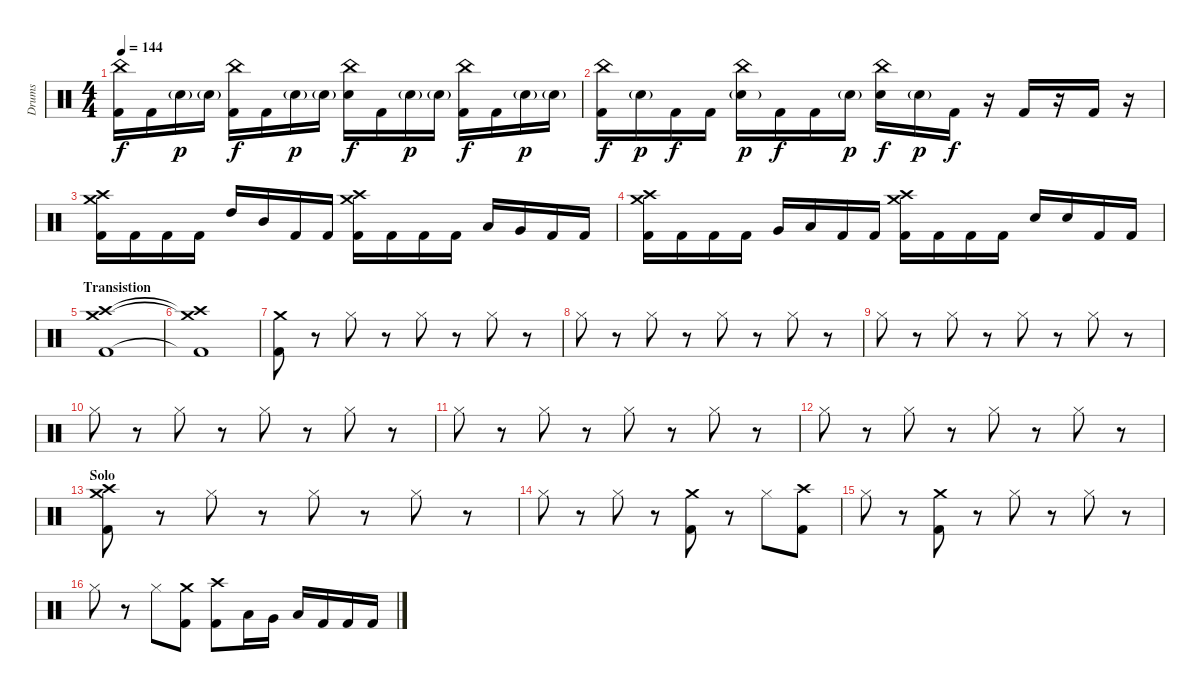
\track ("Drums" "Drums") {instrument percussion}
\staff {score}
\articulation defaults
\ts (4 4)
\tempo 144
\clef neutral
\ks c
("China (hit)" "Kick (hit) 2").16{dy f} "Kick (hit) 2".16 "Snare (hit) 2"{g}.16{dy p} "Snare (hit) 2"{g}.16 ("China (hit)" "Kick (hit) 2").16{dy f} "Kick (hit) 2".16 "Snare (hit) 2"{g}.16{dy p} "Snare (hit) 2"{g}.16 ("China (hit)" "Electric Snare (hit)").16{dy f} "Kick (hit) 2".16 "Snare (hit) 2"{g}.16{dy p} "Snare (hit) 2"{g}.16 ("China (hit)" "Kick (hit) 2").16{dy f} "Kick (hit) 2".16 "Snare (hit) 2"{g}.16{dy p} "Snare (hit) 2"{g}.16 |
("China (hit)" "Kick (hit) 2").16{dy f} "Snare (hit) 2"{g}.16{dy p} "Kick (hit) 2".16{dy f} "Kick (hit) 2".16 ("China (hit)" "Snare (hit) 2"{g}).16{dy p} "Kick (hit) 2".16{dy f} "Kick (hit) 2".16 "Snare (hit) 2"{g}.16{dy p} ("China (hit)" "Electric Snare (hit)").16{dy f} "Snare (hit) 2"{g}.16{dy p} "Kick (hit) 2".16{dy f} r.16 "Kick (hit) 2".16 r.16 "Kick (hit) 2".16 r.16 |
("Crash medium (hit)" "Crash high (hit)" "Kick (hit) 2").16 "Kick (hit) 2".16 "Kick (hit) 2".16 "Kick (hit) 2".16 "High Tom (hit)".16 "Mid Tom (hit)".16 "Kick (hit) 2".16 "Kick (hit) 2".16 ("Crash medium (hit)" "Crash high (hit)" "Kick (hit) 2").16 "Kick (hit) 2".16 "Kick (hit) 2".16 "Kick (hit) 2".16 "Low Tom (hit)".16 "Very Low Tom (hit)".16 "Kick (hit) 2".16 "Kick (hit) 2".16 |
("Crash medium (hit)" "Crash high (hit)" "Kick (hit) 2").16 "Kick (hit) 2".16 "Kick (hit) 2".16 "Kick (hit) 2".16 "Very Low Tom (hit)".16 "Low Floor Tom (hit)".16 "Kick (hit) 2".16 "Kick (hit) 2".16 ("Crash medium (hit)" "Crash high (hit)" "Kick (hit) 2").16 "Kick (hit) 2".16 "Kick (hit) 2".16 "Kick (hit) 2".16 "Electric Snare (hit)".16 "Electric Snare (hit)".16 "Kick (hit) 2".16 "Kick (hit) 2".16 |
\section ("" "Transistion")
("Crash medium (hit)" "Crash high (hit)" "Kick (hit) 2").1 |
("Crash medium (hit)"{t} "Crash high (hit)"{t} "Kick (hit) 2"{t}).1 |
("Crash medium (hit)" "Kick (hit) 2").8 r.8 "Hi-Hat (closed)".8 r.8 "Hi-Hat (closed)".8 r.8 "Hi-Hat (closed)".8 r.8 |
"Hi-Hat (closed)".8 r.8 "Hi-Hat (closed)".8 r.8 "Hi-Hat (closed)".8 r.8 "Hi-Hat (closed)".8 r.8 |
"Hi-Hat (closed)".8 r.8 "Hi-Hat (closed)".8 r.8 "Hi-Hat (closed)".8 r.8 "Hi-Hat (closed)".8 r.8 |
"Hi-Hat (closed)".8 r.8 "Hi-Hat (closed)".8 r.8 "Hi-Hat (closed)".8 r.8 "Hi-Hat (closed)".8 r.8 |
"Hi-Hat (closed)".8 r.8 "Hi-Hat (closed)".8 r.8 "Hi-Hat (closed)".8 r.8 "Hi-Hat (closed)".8 r.8 |
"Hi-Hat (closed)".8 r.8 "Hi-Hat (closed)".8 r.8 "Hi-Hat (closed)".8 r.8 "Hi-Hat (closed)".8 r.8 |
\section ("" "Solo")
("Crash medium (hit)" "Crash high (hit)" "Kick (hit) 2").8 r.8 "Hi-Hat (closed)".8 r.8 "Hi-Hat (closed)".8 r.8 "Hi-Hat (closed)".8 r.8 |
"Hi-Hat (closed)".8 r.8 "Hi-Hat (closed)".8 r.8 ("Crash medium (hit)" "Kick (hit) 2").8 r.8 "Hi-Hat (closed)".8 ("Crash high (hit)" "Kick (hit) 2").8 |
"Hi-Hat (closed)".8 r.8 ("Crash medium (hit)" "Kick (hit) 2").8 r.8 "Hi-Hat (closed)".8 r.8 "Hi-Hat (closed)".8 r.8 |
"Hi-Hat (closed)".8 r.8 "Hi-Hat (closed)".8 ("Crash medium (hit)" "Kick (hit) 2").8 ("Crash high (hit)" "Kick (hit) 2").8 "Low Tom (hit)".16 "Very Low Tom (hit)".16 "Low Floor Tom (hit)".16 "Kick (hit) 2".16 "Kick (hit) 2".16 "Kick (hit) 2".16
